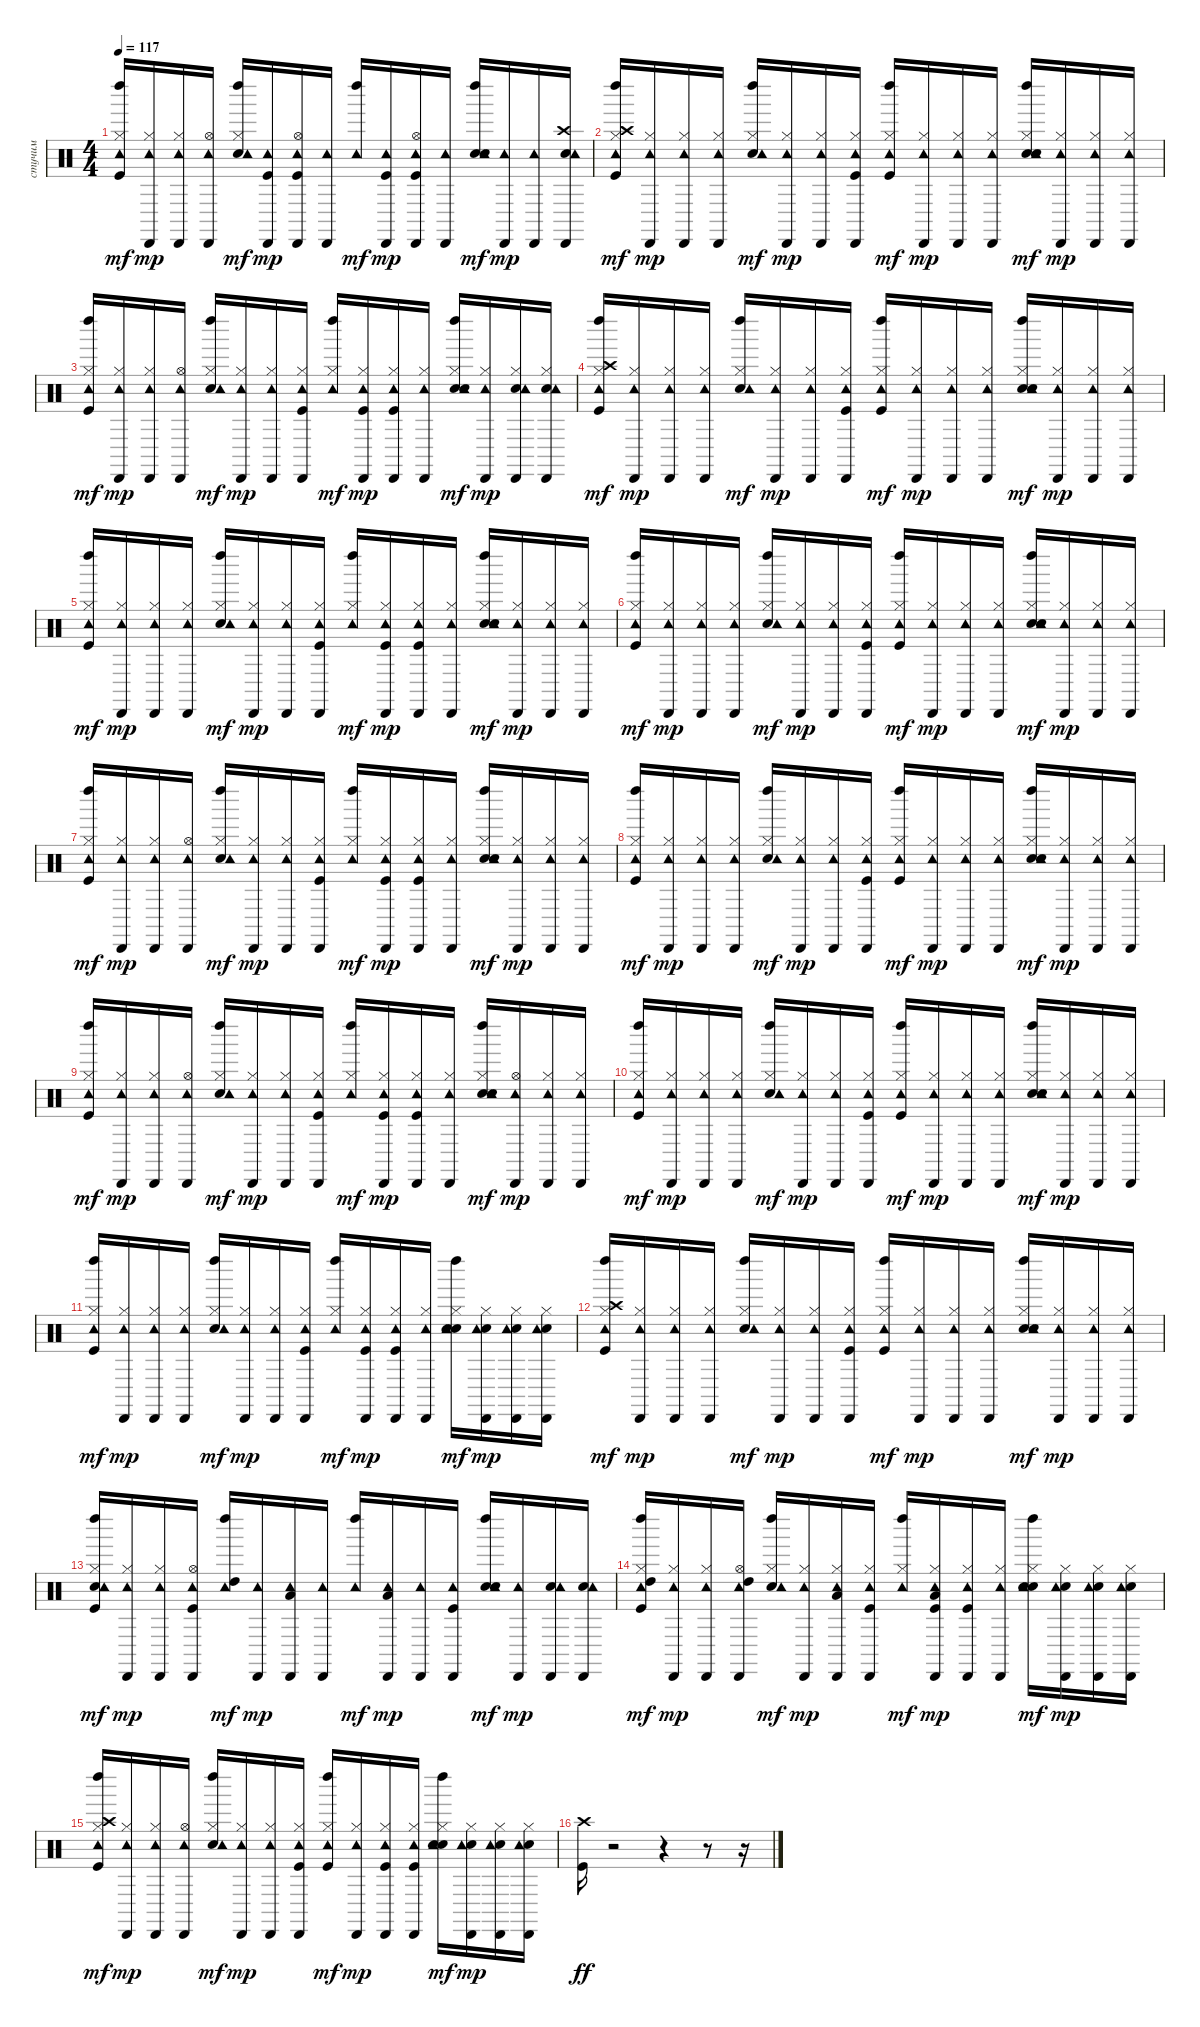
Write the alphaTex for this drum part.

\track ("стучим" "стучим") {instrument percussion}
\staff {score}
\articulation defaults
\ts (4 4)
\tempo 117
\clef neutral
\ks c
("Kick (hit)" "Hi-Hat (closed)" "Tambourine (hit)" "Left Maraca (hit)").16{dy mf} ("Hi-Hat (closed)" "Tambourine (hit)" "Cabasa (hit)").16{dy mp} ("Hi-Hat (closed)" "Tambourine (hit)" "Cabasa (hit)").16 ("Hi-Hat (open)" "Tambourine (hit)" "Cabasa (hit)").16 ("Snare (hit) 2" "Hi-Hat (closed)" "Tambourine (hit)" "Left Maraca (hit)").16{dy mf} ("Kick (hit)" "Tambourine (hit)" "Cabasa (hit)").16{dy mp} ("Kick (hit)" "Hi-Hat (open)" "Tambourine (hit)" "Cabasa (hit)").16 ("Tambourine (hit)" "Cabasa (hit)").16 ("Tambourine (hit)" "Left Maraca (hit)").16{dy mf} ("Kick (hit)" "Tambourine (hit)" "Cabasa (hit)").16{dy mp} ("Kick (hit)" "Hi-Hat (open)" "Tambourine (hit)" "Cabasa (hit)").16 ("Tambourine (hit)" "Cabasa (hit)").16 ("Snare (hit) 2" "Tambourine (hit)" "Hand Clap (hit)" "Left Maraca (hit)").16{dy mf} ("Tambourine (hit)" "Cabasa (hit)").16{dy mp} ("Tambourine (hit)" "Cabasa (hit)").16 ("Snare (hit) 2" "Crash high (hit)" "Tambourine (hit)" "Cabasa (hit)").16 |
("Kick (hit)" "Hi-Hat (closed)" "Crash high (hit)" "Tambourine (hit)" "Left Maraca (hit)").16{dy mf} ("Hi-Hat (closed)" "Tambourine (hit)" "Cabasa (hit)").16{dy mp} ("Hi-Hat (closed)" "Tambourine (hit)" "Cabasa (hit)").16 ("Hi-Hat (closed)" "Tambourine (hit)" "Cabasa (hit)").16 ("Snare (hit) 2" "Hi-Hat (closed)" "Tambourine (hit)" "Left Maraca (hit)").16{dy mf} ("Hi-Hat (closed)" "Tambourine (hit)" "Cabasa (hit)").16{dy mp} ("Hi-Hat (closed)" "Tambourine (hit)" "Cabasa (hit)").16 ("Kick (hit)" "Hi-Hat (closed)" "Tambourine (hit)" "Cabasa (hit)").16 ("Kick (hit)" "Hi-Hat (closed)" "Tambourine (hit)" "Left Maraca (hit)").16{dy mf} ("Hi-Hat (closed)" "Tambourine (hit)" "Cabasa (hit)").16{dy mp} ("Hi-Hat (closed)" "Tambourine (hit)" "Cabasa (hit)").16 ("Hi-Hat (closed)" "Tambourine (hit)" "Cabasa (hit)").16 ("Snare (hit) 2" "Hi-Hat (closed)" "Tambourine (hit)" "Hand Clap (hit)" "Left Maraca (hit)").16{dy mf} ("Hi-Hat (closed)" "Tambourine (hit)" "Cabasa (hit)").16{dy mp} ("Hi-Hat (closed)" "Tambourine (hit)" "Cabasa (hit)").16 ("Hi-Hat (closed)" "Tambourine (hit)" "Cabasa (hit)").16 |
("Kick (hit)" "Hi-Hat (closed)" "Tambourine (hit)" "Left Maraca (hit)").16{dy mf} ("Hi-Hat (closed)" "Tambourine (hit)" "Cabasa (hit)").16{dy mp} ("Hi-Hat (closed)" "Tambourine (hit)" "Cabasa (hit)").16 ("Hi-Hat (open)" "Tambourine (hit)" "Cabasa (hit)").16 ("Snare (hit) 2" "Hi-Hat (closed)" "Tambourine (hit)" "Left Maraca (hit)").16{dy mf} ("Hi-Hat (closed)" "Tambourine (hit)" "Cabasa (hit)").16{dy mp} ("Hi-Hat (closed)" "Tambourine (hit)" "Cabasa (hit)").16 ("Kick (hit)" "Hi-Hat (closed)" "Tambourine (hit)" "Cabasa (hit)").16 ("Hi-Hat (closed)" "Tambourine (hit)" "Left Maraca (hit)").16{dy mf} ("Kick (hit)" "Hi-Hat (closed)" "Tambourine (hit)" "Cabasa (hit)").16{dy mp} ("Kick (hit)" "Hi-Hat (closed)" "Tambourine (hit)" "Cabasa (hit)").16 ("Hi-Hat (closed)" "Tambourine (hit)" "Cabasa (hit)").16 ("Snare (hit) 2" "Hi-Hat (closed)" "Tambourine (hit)" "Hand Clap (hit)" "Left Maraca (hit)").16{dy mf} ("Hi-Hat (closed)" "Tambourine (hit)" "Cabasa (hit)").16{dy mp} ("Snare (hit) 2" "Hi-Hat (closed)" "Tambourine (hit)" "Cabasa (hit)").16 ("Snare (hit) 2" "Hi-Hat (closed)" "Tambourine (hit)" "Cabasa (hit)").16 |
("Kick (hit)" "Hi-Hat (closed)" "Crash high (hit)" "Tambourine (hit)" "Left Maraca (hit)").16{dy mf} ("Hi-Hat (closed)" "Tambourine (hit)" "Cabasa (hit)").16{dy mp} ("Hi-Hat (closed)" "Tambourine (hit)" "Cabasa (hit)").16 ("Hi-Hat (closed)" "Tambourine (hit)" "Cabasa (hit)").16 ("Snare (hit) 2" "Hi-Hat (closed)" "Tambourine (hit)" "Left Maraca (hit)").16{dy mf} ("Hi-Hat (closed)" "Tambourine (hit)" "Cabasa (hit)").16{dy mp} ("Hi-Hat (closed)" "Tambourine (hit)" "Cabasa (hit)").16 ("Kick (hit)" "Hi-Hat (closed)" "Tambourine (hit)" "Cabasa (hit)").16 ("Kick (hit)" "Hi-Hat (closed)" "Tambourine (hit)" "Left Maraca (hit)").16{dy mf} ("Hi-Hat (closed)" "Tambourine (hit)" "Cabasa (hit)").16{dy mp} ("Hi-Hat (closed)" "Tambourine (hit)" "Cabasa (hit)").16 ("Hi-Hat (closed)" "Tambourine (hit)" "Cabasa (hit)").16 ("Snare (hit) 2" "Hi-Hat (closed)" "Tambourine (hit)" "Hand Clap (hit)" "Left Maraca (hit)").16{dy mf} ("Hi-Hat (closed)" "Tambourine (hit)" "Cabasa (hit)").16{dy mp} ("Hi-Hat (closed)" "Tambourine (hit)" "Cabasa (hit)").16 ("Hi-Hat (closed)" "Tambourine (hit)" "Cabasa (hit)").16 |
("Kick (hit)" "Hi-Hat (closed)" "Tambourine (hit)" "Left Maraca (hit)").16{dy mf} ("Hi-Hat (closed)" "Tambourine (hit)" "Cabasa (hit)").16{dy mp} ("Hi-Hat (closed)" "Tambourine (hit)" "Cabasa (hit)").16 ("Hi-Hat (closed)" "Tambourine (hit)" "Cabasa (hit)").16 ("Snare (hit) 2" "Hi-Hat (closed)" "Tambourine (hit)" "Left Maraca (hit)").16{dy mf} ("Hi-Hat (closed)" "Tambourine (hit)" "Cabasa (hit)").16{dy mp} ("Hi-Hat (closed)" "Tambourine (hit)" "Cabasa (hit)").16 ("Kick (hit)" "Hi-Hat (closed)" "Tambourine (hit)" "Cabasa (hit)").16 ("Hi-Hat (closed)" "Tambourine (hit)" "Left Maraca (hit)").16{dy mf} ("Kick (hit)" "Hi-Hat (closed)" "Tambourine (hit)" "Cabasa (hit)").16{dy mp} ("Kick (hit)" "Hi-Hat (closed)" "Tambourine (hit)" "Cabasa (hit)").16 ("Hi-Hat (closed)" "Tambourine (hit)" "Cabasa (hit)").16 ("Snare (hit) 2" "Hi-Hat (closed)" "Tambourine (hit)" "Hand Clap (hit)" "Left Maraca (hit)").16{dy mf} ("Hi-Hat (closed)" "Tambourine (hit)" "Cabasa (hit)").16{dy mp} ("Hi-Hat (closed)" "Tambourine (hit)" "Cabasa (hit)").16 ("Hi-Hat (closed)" "Tambourine (hit)" "Cabasa (hit)").16 |
("Kick (hit)" "Hi-Hat (closed)" "Tambourine (hit)" "Left Maraca (hit)").16{dy mf} ("Hi-Hat (closed)" "Tambourine (hit)" "Cabasa (hit)").16{dy mp} ("Hi-Hat (closed)" "Tambourine (hit)" "Cabasa (hit)").16 ("Hi-Hat (closed)" "Tambourine (hit)" "Cabasa (hit)").16 ("Snare (hit) 2" "Hi-Hat (closed)" "Tambourine (hit)" "Left Maraca (hit)").16{dy mf} ("Hi-Hat (closed)" "Tambourine (hit)" "Cabasa (hit)").16{dy mp} ("Hi-Hat (closed)" "Tambourine (hit)" "Cabasa (hit)").16 ("Kick (hit)" "Hi-Hat (closed)" "Tambourine (hit)" "Cabasa (hit)").16 ("Kick (hit)" "Hi-Hat (closed)" "Tambourine (hit)" "Left Maraca (hit)").16{dy mf} ("Hi-Hat (closed)" "Tambourine (hit)" "Cabasa (hit)").16{dy mp} ("Hi-Hat (closed)" "Tambourine (hit)" "Cabasa (hit)").16 ("Hi-Hat (closed)" "Tambourine (hit)" "Cabasa (hit)").16 ("Snare (hit) 2" "Hi-Hat (closed)" "Tambourine (hit)" "Hand Clap (hit)" "Left Maraca (hit)").16{dy mf} ("Hi-Hat (closed)" "Tambourine (hit)" "Cabasa (hit)").16{dy mp} ("Hi-Hat (closed)" "Tambourine (hit)" "Cabasa (hit)").16 ("Hi-Hat (closed)" "Tambourine (hit)" "Cabasa (hit)").16 |
("Kick (hit)" "Hi-Hat (closed)" "Tambourine (hit)" "Left Maraca (hit)").16{dy mf} ("Hi-Hat (closed)" "Tambourine (hit)" "Cabasa (hit)").16{dy mp} ("Hi-Hat (closed)" "Tambourine (hit)" "Cabasa (hit)").16 ("Hi-Hat (open)" "Tambourine (hit)" "Cabasa (hit)").16 ("Snare (hit) 2" "Hi-Hat (closed)" "Tambourine (hit)" "Left Maraca (hit)").16{dy mf} ("Hi-Hat (closed)" "Tambourine (hit)" "Cabasa (hit)").16{dy mp} ("Hi-Hat (closed)" "Tambourine (hit)" "Cabasa (hit)").16 ("Kick (hit)" "Hi-Hat (closed)" "Tambourine (hit)" "Cabasa (hit)").16 ("Hi-Hat (closed)" "Tambourine (hit)" "Left Maraca (hit)").16{dy mf} ("Kick (hit)" "Hi-Hat (closed)" "Tambourine (hit)" "Cabasa (hit)").16{dy mp} ("Kick (hit)" "Hi-Hat (closed)" "Tambourine (hit)" "Cabasa (hit)").16 ("Hi-Hat (closed)" "Tambourine (hit)" "Cabasa (hit)").16 ("Snare (hit) 2" "Hi-Hat (closed)" "Tambourine (hit)" "Hand Clap (hit)" "Left Maraca (hit)").16{dy mf} ("Hi-Hat (closed)" "Tambourine (hit)" "Cabasa (hit)").16{dy mp} ("Hi-Hat (closed)" "Tambourine (hit)" "Cabasa (hit)").16 ("Hi-Hat (closed)" "Tambourine (hit)" "Cabasa (hit)").16 |
("Kick (hit)" "Hi-Hat (closed)" "Tambourine (hit)" "Left Maraca (hit)").16{dy mf} ("Hi-Hat (closed)" "Tambourine (hit)" "Cabasa (hit)").16{dy mp} ("Hi-Hat (closed)" "Tambourine (hit)" "Cabasa (hit)").16 ("Hi-Hat (closed)" "Tambourine (hit)" "Cabasa (hit)").16 ("Snare (hit) 2" "Hi-Hat (closed)" "Tambourine (hit)" "Left Maraca (hit)").16{dy mf} ("Hi-Hat (closed)" "Tambourine (hit)" "Cabasa (hit)").16{dy mp} ("Hi-Hat (closed)" "Tambourine (hit)" "Cabasa (hit)").16 ("Kick (hit)" "Hi-Hat (closed)" "Tambourine (hit)" "Cabasa (hit)").16 ("Kick (hit)" "Hi-Hat (closed)" "Tambourine (hit)" "Left Maraca (hit)").16{dy mf} ("Hi-Hat (closed)" "Tambourine (hit)" "Cabasa (hit)").16{dy mp} ("Hi-Hat (closed)" "Tambourine (hit)" "Cabasa (hit)").16 ("Hi-Hat (closed)" "Tambourine (hit)" "Cabasa (hit)").16 ("Snare (hit) 2" "Hi-Hat (closed)" "Tambourine (hit)" "Hand Clap (hit)" "Left Maraca (hit)").16{dy mf} ("Hi-Hat (closed)" "Tambourine (hit)" "Cabasa (hit)").16{dy mp} ("Hi-Hat (closed)" "Tambourine (hit)" "Cabasa (hit)").16 ("Hi-Hat (closed)" "Tambourine (hit)" "Cabasa (hit)").16 |
("Kick (hit)" "Hi-Hat (closed)" "Tambourine (hit)" "Left Maraca (hit)").16{dy mf} ("Hi-Hat (closed)" "Tambourine (hit)" "Cabasa (hit)").16{dy mp} ("Hi-Hat (closed)" "Tambourine (hit)" "Cabasa (hit)").16 ("Hi-Hat (open)" "Tambourine (hit)" "Cabasa (hit)").16 ("Snare (hit) 2" "Hi-Hat (closed)" "Tambourine (hit)" "Left Maraca (hit)").16{dy mf} ("Hi-Hat (closed)" "Tambourine (hit)" "Cabasa (hit)").16{dy mp} ("Hi-Hat (closed)" "Tambourine (hit)" "Cabasa (hit)").16 ("Kick (hit)" "Hi-Hat (closed)" "Tambourine (hit)" "Cabasa (hit)").16 ("Hi-Hat (closed)" "Tambourine (hit)" "Left Maraca (hit)").16{dy mf} ("Kick (hit)" "Hi-Hat (closed)" "Tambourine (hit)" "Cabasa (hit)").16{dy mp} ("Kick (hit)" "Hi-Hat (closed)" "Tambourine (hit)" "Cabasa (hit)").16 ("Hi-Hat (closed)" "Tambourine (hit)" "Cabasa (hit)").16 ("Snare (hit) 2" "Hi-Hat (closed)" "Tambourine (hit)" "Hand Clap (hit)" "Left Maraca (hit)").16{dy mf} ("Hi-Hat (open)" "Tambourine (hit)" "Cabasa (hit)").16{dy mp} ("Hi-Hat (closed)" "Tambourine (hit)" "Cabasa (hit)").16 ("Hi-Hat (closed)" "Tambourine (hit)" "Cabasa (hit)").16 |
("Kick (hit)" "Hi-Hat (closed)" "Tambourine (hit)" "Left Maraca (hit)").16{dy mf} ("Hi-Hat (closed)" "Tambourine (hit)" "Cabasa (hit)").16{dy mp} ("Hi-Hat (closed)" "Tambourine (hit)" "Cabasa (hit)").16 ("Hi-Hat (closed)" "Tambourine (hit)" "Cabasa (hit)").16 ("Snare (hit) 2" "Hi-Hat (closed)" "Tambourine (hit)" "Left Maraca (hit)").16{dy mf} ("Hi-Hat (closed)" "Tambourine (hit)" "Cabasa (hit)").16{dy mp} ("Hi-Hat (closed)" "Tambourine (hit)" "Cabasa (hit)").16 ("Kick (hit)" "Hi-Hat (closed)" "Tambourine (hit)" "Cabasa (hit)").16 ("Kick (hit)" "Hi-Hat (closed)" "Tambourine (hit)" "Left Maraca (hit)").16{dy mf} ("Hi-Hat (closed)" "Tambourine (hit)" "Cabasa (hit)").16{dy mp} ("Hi-Hat (closed)" "Tambourine (hit)" "Cabasa (hit)").16 ("Hi-Hat (closed)" "Tambourine (hit)" "Cabasa (hit)").16 ("Snare (hit) 2" "Hi-Hat (closed)" "Tambourine (hit)" "Hand Clap (hit)" "Left Maraca (hit)").16{dy mf} ("Hi-Hat (closed)" "Tambourine (hit)" "Cabasa (hit)").16{dy mp} ("Hi-Hat (closed)" "Tambourine (hit)" "Cabasa (hit)").16 ("Hi-Hat (closed)" "Tambourine (hit)" "Cabasa (hit)").16 |
("Kick (hit)" "Hi-Hat (closed)" "Tambourine (hit)" "Left Maraca (hit)").16{dy mf} ("Hi-Hat (closed)" "Tambourine (hit)" "Cabasa (hit)").16{dy mp} ("Hi-Hat (closed)" "Tambourine (hit)" "Cabasa (hit)").16 ("Hi-Hat (closed)" "Tambourine (hit)" "Cabasa (hit)").16 ("Snare (hit) 2" "Hi-Hat (closed)" "Tambourine (hit)" "Left Maraca (hit)").16{dy mf} ("Hi-Hat (closed)" "Tambourine (hit)" "Cabasa (hit)").16{dy mp} ("Hi-Hat (closed)" "Tambourine (hit)" "Cabasa (hit)").16 ("Kick (hit)" "Hi-Hat (closed)" "Tambourine (hit)" "Cabasa (hit)").16 ("Hi-Hat (closed)" "Tambourine (hit)" "Left Maraca (hit)").16{dy mf} ("Kick (hit)" "Hi-Hat (closed)" "Tambourine (hit)" "Cabasa (hit)").16{dy mp} ("Kick (hit)" "Hi-Hat (closed)" "Tambourine (hit)" "Cabasa (hit)").16 ("Hi-Hat (closed)" "Tambourine (hit)" "Cabasa (hit)").16 ("Snare (hit) 2" "Hi-Hat (closed)" "Tambourine (hit)" "Hand Clap (hit)" "Left Maraca (hit)").16{dy mf} ("Snare (hit) 2" "Hi-Hat (closed)" "Tambourine (hit)" "Cabasa (hit)").16{dy mp} ("Snare (hit) 2" "Hi-Hat (closed)" "Tambourine (hit)" "Cabasa (hit)").16 ("Snare (hit) 2" "Hi-Hat (closed)" "Tambourine (hit)" "Cabasa (hit)").16 |
("Kick (hit)" "Hi-Hat (closed)" "Crash high (hit)" "Tambourine (hit)" "Left Maraca (hit)").16{dy mf} ("Hi-Hat (closed)" "Tambourine (hit)" "Cabasa (hit)").16{dy mp} ("Hi-Hat (closed)" "Tambourine (hit)" "Cabasa (hit)").16 ("Hi-Hat (closed)" "Tambourine (hit)" "Cabasa (hit)").16 ("Snare (hit) 2" "Hi-Hat (closed)" "Tambourine (hit)" "Left Maraca (hit)").16{dy mf} ("Hi-Hat (closed)" "Tambourine (hit)" "Cabasa (hit)").16{dy mp} ("Hi-Hat (closed)" "Tambourine (hit)" "Cabasa (hit)").16 ("Kick (hit)" "Hi-Hat (closed)" "Tambourine (hit)" "Cabasa (hit)").16 ("Kick (hit)" "Hi-Hat (closed)" "Tambourine (hit)" "Left Maraca (hit)").16{dy mf} ("Hi-Hat (closed)" "Tambourine (hit)" "Cabasa (hit)").16{dy mp} ("Hi-Hat (closed)" "Tambourine (hit)" "Cabasa (hit)").16 ("Hi-Hat (closed)" "Tambourine (hit)" "Cabasa (hit)").16 ("Snare (hit) 2" "Hi-Hat (closed)" "Tambourine (hit)" "Hand Clap (hit)" "Left Maraca (hit)").16{dy mf balance 0} ("Hi-Hat (closed)" "Tambourine (hit)" "Cabasa (hit)").16{dy mp} ("Hi-Hat (closed)" "Tambourine (hit)" "Cabasa (hit)").16 ("Hi-Hat (closed)" "Tambourine (hit)" "Cabasa (hit)").16 |
("Kick (hit)" "Snare (hit) 2" "Hi-Hat (closed)" "Tambourine (hit)" "Left Maraca (hit)").16{dy mf balance 15} ("Hi-Hat (closed)" "Tambourine (hit)" "Cabasa (hit)").16{dy mp} ("Hi-Hat (closed)" "Tambourine (hit)" "Cabasa (hit)").16 ("Kick (hit)" "Hi-Hat (open)" "Tambourine (hit)" "Cabasa (hit)").16 ("High Tom (hit)" "Tambourine (hit)" "Left Maraca (hit)").16{dy mf} ("Tambourine (hit)" "Cabasa (hit)").16{dy mp} ("Low Tom (hit)" "Tambourine (hit)" "Cabasa (hit)").16 ("Tambourine (hit)" "Cabasa (hit)").16 ("Tambourine (hit)" "Left Maraca (hit)").16{dy mf balance 0} ("Low Floor Tom (hit)" "Tambourine (hit)" "Cabasa (hit)").16{dy mp} ("Tambourine (hit)" "Cabasa (hit)").16 ("Kick (hit)" "Tambourine (hit)" "Cabasa (hit)").16 ("Snare (hit) 2" "Tambourine (hit)" "Hand Clap (hit)" "Left Maraca (hit)").16{dy mf} ("Tambourine (hit)" "Cabasa (hit)").16{dy mp} ("Snare (hit) 2" "Tambourine (hit)" "Cabasa (hit)").16 ("Snare (hit) 2" "Tambourine (hit)" "Cabasa (hit)").16 |
("Kick (hit)" "Hi-Hat (closed)" "High Tom (hit)" "Tambourine (hit)" "Left Maraca (hit)").16{dy mf balance 8} ("Hi-Hat (closed)" "Tambourine (hit)" "Cabasa (hit)").16{dy mp} ("Hi-Hat (closed)" "Tambourine (hit)" "Cabasa (hit)").16 ("Hi-Hat (open)" "High Tom (hit)" "Tambourine (hit)" "Cabasa (hit)").16 ("Snare (hit) 2" "Hi-Hat (closed)" "Tambourine (hit)" "Left Maraca (hit)").16{dy mf} ("Hi-Hat (closed)" "Tambourine (hit)" "Cabasa (hit)").16{dy mp} ("Hi-Hat (closed)" "Low Tom (hit)" "Tambourine (hit)" "Cabasa (hit)").16 ("Kick (hit)" "Hi-Hat (closed)" "Tambourine (hit)" "Cabasa (hit)").16 ("Hi-Hat (closed)" "Tambourine (hit)" "Left Maraca (hit)").16{dy mf} ("Kick (hit)" "Hi-Hat (closed)" "Low Floor Tom (hit)" "Tambourine (hit)" "Cabasa (hit)").16{dy mp} ("Kick (hit)" "Hi-Hat (closed)" "Tambourine (hit)" "Cabasa (hit)").16 ("Hi-Hat (closed)" "Tambourine (hit)" "Cabasa (hit)").16 ("Snare (hit) 2" "Hi-Hat (closed)" "Tambourine (hit)" "Hand Clap (hit)" "Left Maraca (hit)").16{dy mf} ("Snare (hit) 2" "Hi-Hat (closed)" "Tambourine (hit)" "Cabasa (hit)").16{dy mp} ("Snare (hit) 2" "Hi-Hat (closed)" "Tambourine (hit)" "Cabasa (hit)").16 ("Snare (hit) 2" "Hi-Hat (closed)" "Tambourine (hit)" "Cabasa (hit)").16 |
("Kick (hit)" "Hi-Hat (closed)" "Crash high (hit)" "Tambourine (hit)" "Left Maraca (hit)").16{dy mf} ("Hi-Hat (closed)" "Tambourine (hit)" "Cabasa (hit)").16{dy mp} ("Hi-Hat (closed)" "Tambourine (hit)" "Cabasa (hit)").16 ("Hi-Hat (open)" "Tambourine (hit)" "Cabasa (hit)").16 ("Snare (hit) 2" "Hi-Hat (closed)" "Tambourine (hit)" "Left Maraca (hit)").16{dy mf} ("Hi-Hat (closed)" "Tambourine (hit)" "Cabasa (hit)").16{dy mp} ("Hi-Hat (closed)" "Tambourine (hit)" "Cabasa (hit)").16 ("Kick (hit)" "Hi-Hat (closed)" "Tambourine (hit)" "Cabasa (hit)").16 ("Kick (hit)" "Hi-Hat (closed)" "Tambourine (hit)" "Left Maraca (hit)").16{dy mf} ("Hi-Hat (closed)" "Tambourine (hit)" "Cabasa (hit)").16{dy mp balance 16} ("Kick (hit)" "Hi-Hat (closed)" "Tambourine (hit)" "Cabasa (hit)").16 ("Kick (hit)" "Hi-Hat (closed)" "Tambourine (hit)" "Cabasa (hit)").16 ("Snare (hit) 2" "Hi-Hat (closed)" "Tambourine (hit)" "Hand Clap (hit)" "Left Maraca (hit)").16{dy mf} ("Snare (hit) 2" "Hi-Hat (closed)" "Tambourine (hit)" "Cabasa (hit)").16{dy mp balance 8} ("Snare (hit) 2" "Hi-Hat (closed)" "Tambourine (hit)" "Cabasa (hit)").16 ("Snare (hit) 2" "Hi-Hat (closed)" "Tambourine (hit)" "Cabasa (hit)").16 |
("Kick (hit)" "Crash high (hit)").16{dy ff} r.2 r.4 r.8 r.16
